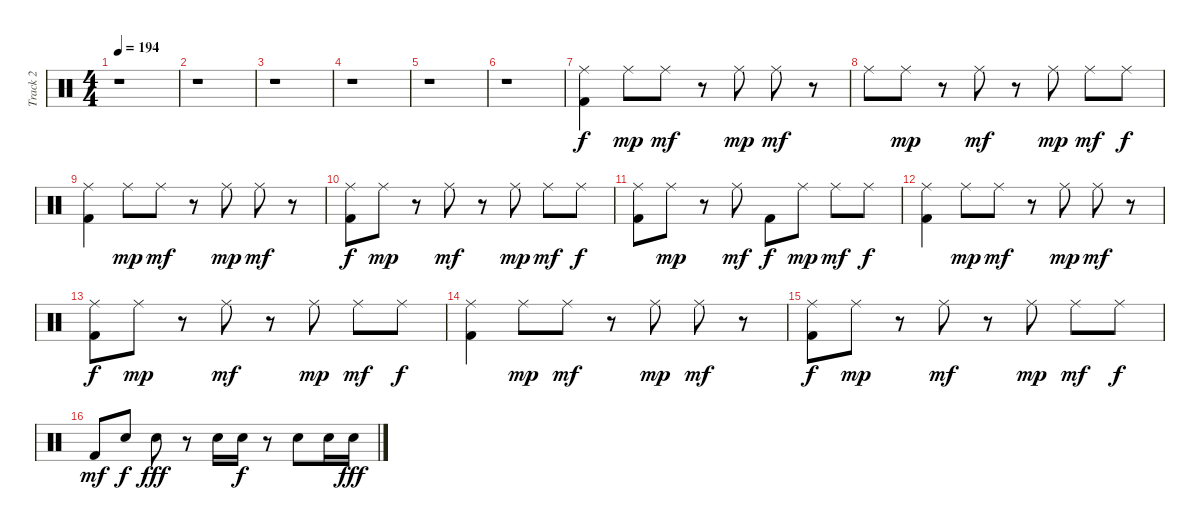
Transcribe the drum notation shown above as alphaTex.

\track ("Track 2" "Track 2") {instrument percussion}
\staff {score}
\articulation defaults
\ts (4 4)
\tempo 194
\clef neutral
\ks c
r.1{dy p} |
r.1 |
r.1 |
r.1 |
r.1 |
r.1 |
("Ride (middle)" "Kick (hit) 2").4{dy f} "Ride (middle)".8{dy mp} "Ride (middle)".8{dy mf} r.8 "Ride (middle)".8{dy mp} "Ride (middle)".8{dy mf} r.8 |
"Ride (middle)".8 "Ride (middle)".8{dy mp} r.8 "Ride (middle)".8{dy mf} r.8 "Ride (middle)".8{dy mp} "Ride (middle)".8{dy mf} "Ride (middle)".8{dy f} |
("Ride (middle)" "Kick (hit) 2").4 "Ride (middle)".8{dy mp} "Ride (middle)".8{dy mf} r.8 "Ride (middle)".8{dy mp} "Ride (middle)".8{dy mf} r.8 |
("Ride (middle)" "Kick (hit) 2").8{dy f} "Ride (middle)".8{dy mp} r.8 "Ride (middle)".8{dy mf} r.8 "Ride (middle)".8{dy mp} "Ride (middle)".8{dy mf} "Ride (middle)".8{dy f} |
("Ride (middle)" "Kick (hit) 2").8 "Ride (middle)".8{dy mp} r.8 "Ride (middle)".8{dy mf} "Kick (hit) 2".8{dy f} "Ride (middle)".8{dy mp} "Ride (middle)".8{dy mf} "Ride (middle)".8{dy f} |
("Ride (middle)" "Kick (hit) 2").4 "Ride (middle)".8{dy mp} "Ride (middle)".8{dy mf} r.8 "Ride (middle)".8{dy mp} "Ride (middle)".8{dy mf} r.8 |
("Ride (middle)" "Kick (hit) 2").8{dy f} "Ride (middle)".8{dy mp} r.8 "Ride (middle)".8{dy mf} r.8 "Ride (middle)".8{dy mp} "Ride (middle)".8{dy mf} "Ride (middle)".8{dy f} |
("Ride (middle)" "Kick (hit) 2").4 "Ride (middle)".8{dy mp} "Ride (middle)".8{dy mf} r.8 "Ride (middle)".8{dy mp} "Ride (middle)".8{dy mf} r.8 |
("Ride (middle)" "Kick (hit) 2").8{dy f} "Ride (middle)".8{dy mp} r.8 "Ride (middle)".8{dy mf} r.8 "Ride (middle)".8{dy mp} "Ride (middle)".8{dy mf} "Ride (middle)".8{dy f} |
"Kick (hit) 2".8{dy mf} "Snare (hit)".8{dy f} "Snare (hit)".8{dy fff} r.8 "Snare (hit)".16 "Snare (hit)".16{dy f} r.8 "Snare (hit)".8 "Snare (hit)".16 "Snare (hit)".16{dy fff}
